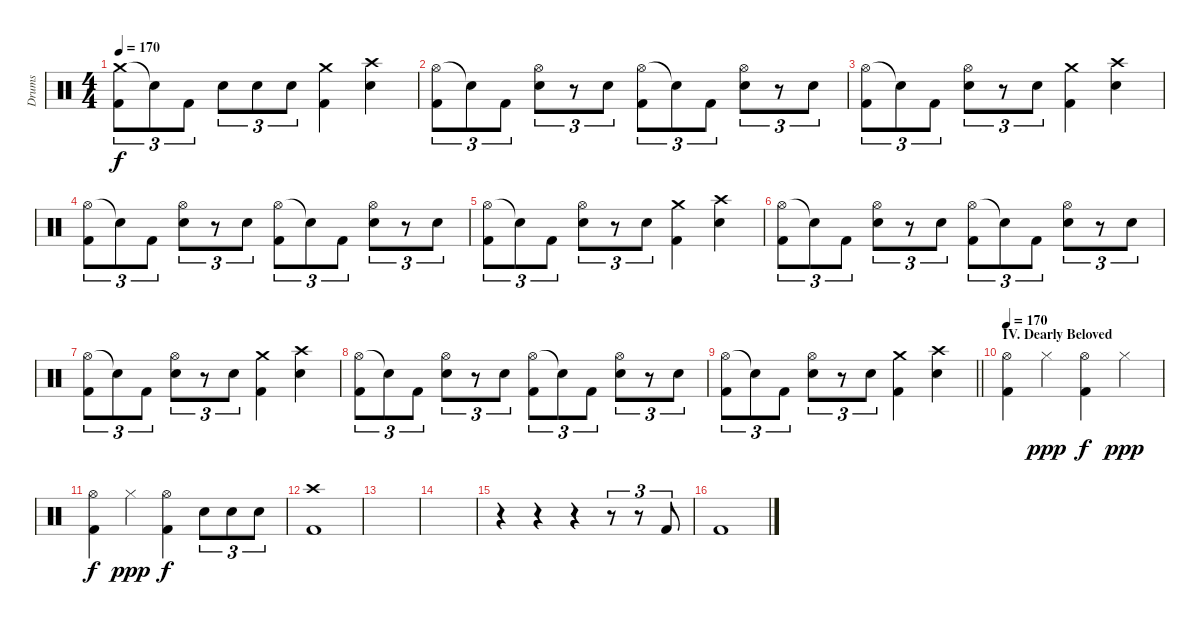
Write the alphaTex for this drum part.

\track ("Drums" "Drums") {instrument percussion}
\staff {score}
\articulation defaults
\ts (4 4)
\tempo 170
\clef neutral
\ks c
("Crash medium (hit)" "Kick (hit) 2").8{tu (3 2) dy f} "Snare (hit)"{t}.8{tu (3 2)} "Kick (hit) 2".8{tu (3 2)} "Snare (hit) 2".8{tu (3 2)} "Snare (hit) 2".8{tu (3 2)} "Snare (hit) 2".8{tu (3 2)} ("Crash medium (hit)" "Kick (hit) 2").4 ("Crash high (hit)" "Snare (hit) 2").4 |
("Hi-Hat (open)" "Kick (hit) 2").8{tu (3 2)} "Snare (hit)"{t}.8{tu (3 2)} "Kick (hit) 2".8{tu (3 2)} ("Hi-Hat (open)" "Snare (hit) 2").8{tu (3 2)} r.8{tu (3 2)} "Snare (hit) 2".8{tu (3 2)} ("Hi-Hat (open)" "Kick (hit) 2").8{tu (3 2)} "Snare (hit)"{t}.8{tu (3 2)} "Kick (hit) 2".8{tu (3 2)} ("Hi-Hat (open)" "Snare (hit) 2").8{tu (3 2)} r.8{tu (3 2)} "Snare (hit) 2".8{tu (3 2)} |
("Hi-Hat (open)" "Kick (hit) 2").8{tu (3 2)} "Snare (hit)"{t}.8{tu (3 2)} "Kick (hit) 2".8{tu (3 2)} ("Hi-Hat (open)" "Snare (hit) 2").8{tu (3 2)} r.8{tu (3 2)} "Snare (hit) 2".8{tu (3 2)} ("Crash medium (hit)" "Kick (hit) 2").4 ("Crash high (hit)" "Snare (hit) 2").4 |
("Hi-Hat (open)" "Kick (hit) 2").8{tu (3 2)} "Snare (hit)"{t}.8{tu (3 2)} "Kick (hit) 2".8{tu (3 2)} ("Hi-Hat (open)" "Snare (hit) 2").8{tu (3 2)} r.8{tu (3 2)} "Snare (hit) 2".8{tu (3 2)} ("Hi-Hat (open)" "Kick (hit) 2").8{tu (3 2)} "Snare (hit)"{t}.8{tu (3 2)} "Kick (hit) 2".8{tu (3 2)} ("Hi-Hat (open)" "Snare (hit) 2").8{tu (3 2)} r.8{tu (3 2)} "Snare (hit) 2".8{tu (3 2)} |
("Hi-Hat (open)" "Kick (hit) 2").8{tu (3 2)} "Snare (hit)"{t}.8{tu (3 2)} "Kick (hit) 2".8{tu (3 2)} ("Hi-Hat (open)" "Snare (hit) 2").8{tu (3 2)} r.8{tu (3 2)} "Snare (hit) 2".8{tu (3 2)} ("Crash medium (hit)" "Kick (hit) 2").4 ("Crash high (hit)" "Snare (hit) 2").4 |
("Hi-Hat (open)" "Kick (hit) 2").8{tu (3 2)} "Snare (hit)"{t}.8{tu (3 2)} "Kick (hit) 2".8{tu (3 2)} ("Hi-Hat (open)" "Snare (hit) 2").8{tu (3 2)} r.8{tu (3 2)} "Snare (hit) 2".8{tu (3 2)} ("Hi-Hat (open)" "Kick (hit) 2").8{tu (3 2)} "Snare (hit)"{t}.8{tu (3 2)} "Kick (hit) 2".8{tu (3 2)} ("Hi-Hat (open)" "Snare (hit) 2").8{tu (3 2)} r.8{tu (3 2)} "Snare (hit) 2".8{tu (3 2)} |
("Hi-Hat (open)" "Kick (hit) 2").8{tu (3 2)} "Snare (hit)"{t}.8{tu (3 2)} "Kick (hit) 2".8{tu (3 2)} ("Hi-Hat (open)" "Snare (hit) 2").8{tu (3 2)} r.8{tu (3 2)} "Snare (hit) 2".8{tu (3 2)} ("Crash medium (hit)" "Kick (hit) 2").4 ("Crash high (hit)" "Snare (hit) 2").4 |
("Hi-Hat (open)" "Kick (hit) 2").8{tu (3 2)} "Snare (hit)"{t}.8{tu (3 2)} "Kick (hit) 2".8{tu (3 2)} ("Hi-Hat (open)" "Snare (hit) 2").8{tu (3 2)} r.8{tu (3 2)} "Snare (hit) 2".8{tu (3 2)} ("Hi-Hat (open)" "Kick (hit) 2").8{tu (3 2)} "Snare (hit)"{t}.8{tu (3 2)} "Kick (hit) 2".8{tu (3 2)} ("Hi-Hat (open)" "Snare (hit) 2").8{tu (3 2)} r.8{tu (3 2)} "Snare (hit) 2".8{tu (3 2)} |
\barLineRight lightlight
("Hi-Hat (open)" "Kick (hit) 2").8{tu (3 2)} "Snare (hit)"{t}.8{tu (3 2)} "Kick (hit) 2".8{tu (3 2)} ("Hi-Hat (open)" "Snare (hit) 2").8{tu (3 2)} r.8{tu (3 2)} "Snare (hit) 2".8{tu (3 2)} ("Crash medium (hit)" "Kick (hit) 2").4 ("Crash high (hit)" "Snare (hit) 2").4 |
\section ("" "IV. Dearly Beloved")
\tempo 170
("Hi-Hat (open)" "Kick (hit) 2").4 "Hi-Hat (closed)".4{dy ppp} ("Hi-Hat (open)" "Kick (hit) 2").4{dy f} "Hi-Hat (closed)".4{dy ppp} |
("Hi-Hat (open)" "Kick (hit) 2").4{dy f} "Hi-Hat (closed)".4{dy ppp} ("Hi-Hat (open)" "Kick (hit) 2").4{dy f} "Snare (hit) 2".8{tu (3 2)} "Snare (hit) 2".8{tu (3 2)} "Snare (hit) 2".8{tu (3 2)} |
("Crash high (hit)" "Kick (hit) 2").1 |
|
|
r.4 r.4 r.4 r.8{tu (3 2)} r.8{tu (3 2)} "Kick (hit) 2".8{tu (3 2)} |
"Kick (hit) 2".1
